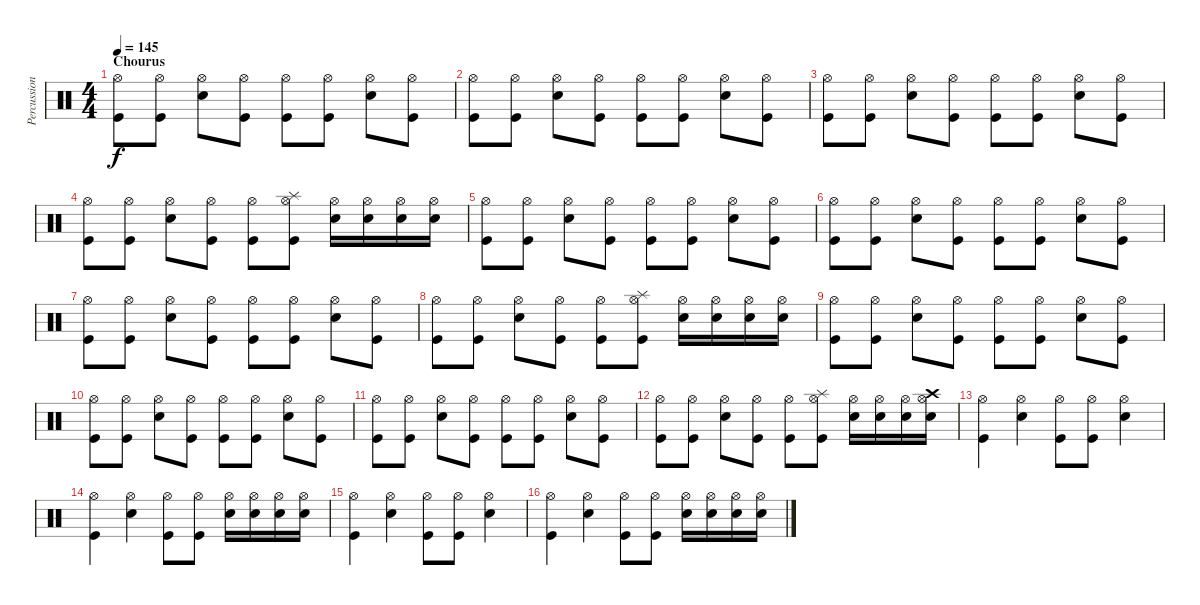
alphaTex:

\track ("Percussion" "Percussion") {instrument percussion}
\staff {score}
\articulation defaults
\ts (4 4)
\section ("" "Chourus")
\tempo 145
\clef neutral
\ks c
("Hi-Hat (open)" "Kick (hit)").8{dy f} ("Hi-Hat (open)" "Kick (hit)").8 ("Hi-Hat (open)" "Snare (hit) 2").8 ("Hi-Hat (open)" "Kick (hit)").8 ("Hi-Hat (open)" "Kick (hit)").8 ("Hi-Hat (open)" "Kick (hit)").8 ("Hi-Hat (open)" "Snare (hit) 2").8 ("Hi-Hat (open)" "Kick (hit)").8 |
("Hi-Hat (open)" "Kick (hit)").8 ("Hi-Hat (open)" "Kick (hit)").8 ("Hi-Hat (open)" "Snare (hit) 2").8 ("Hi-Hat (open)" "Kick (hit)").8 ("Hi-Hat (open)" "Kick (hit)").8 ("Hi-Hat (open)" "Kick (hit)").8 ("Hi-Hat (open)" "Snare (hit) 2").8 ("Hi-Hat (open)" "Kick (hit)").8 |
("Hi-Hat (open)" "Kick (hit)").8 ("Hi-Hat (open)" "Kick (hit)").8 ("Hi-Hat (open)" "Snare (hit) 2").8 ("Hi-Hat (open)" "Kick (hit)").8 ("Hi-Hat (open)" "Kick (hit)").8 ("Hi-Hat (open)" "Kick (hit)").8 ("Hi-Hat (open)" "Snare (hit) 2").8 ("Hi-Hat (open)" "Kick (hit)").8 |
("Hi-Hat (open)" "Kick (hit)").8 ("Hi-Hat (open)" "Kick (hit)").8 ("Hi-Hat (open)" "Snare (hit) 2").8 ("Hi-Hat (open)" "Kick (hit)").8 ("Hi-Hat (open)" "Kick (hit)").8 ("Hi-Hat (open)" "Splash (hit)" "Kick (hit)").8 ("Hi-Hat (open)" "Snare (hit) 2").16 ("Hi-Hat (open)" "Snare (hit) 2").16 ("Hi-Hat (open)" "Snare (hit) 2").16 ("Hi-Hat (open)" "Snare (hit) 2").16 |
("Hi-Hat (open)" "Kick (hit)").8 ("Hi-Hat (open)" "Kick (hit)").8 ("Hi-Hat (open)" "Snare (hit) 2").8 ("Hi-Hat (open)" "Kick (hit)").8 ("Hi-Hat (open)" "Kick (hit)").8 ("Hi-Hat (open)" "Kick (hit)").8 ("Hi-Hat (open)" "Snare (hit) 2").8 ("Hi-Hat (open)" "Kick (hit)").8 |
("Hi-Hat (open)" "Kick (hit)").8 ("Hi-Hat (open)" "Kick (hit)").8 ("Hi-Hat (open)" "Snare (hit) 2").8 ("Hi-Hat (open)" "Kick (hit)").8 ("Hi-Hat (open)" "Kick (hit)").8 ("Hi-Hat (open)" "Kick (hit)").8 ("Hi-Hat (open)" "Snare (hit) 2").8 ("Hi-Hat (open)" "Kick (hit)").8 |
("Hi-Hat (open)" "Kick (hit)").8 ("Hi-Hat (open)" "Kick (hit)").8 ("Hi-Hat (open)" "Snare (hit) 2").8 ("Hi-Hat (open)" "Kick (hit)").8 ("Hi-Hat (open)" "Kick (hit)").8 ("Hi-Hat (open)" "Kick (hit)").8 ("Hi-Hat (open)" "Snare (hit) 2").8 ("Hi-Hat (open)" "Kick (hit)").8 |
("Hi-Hat (open)" "Kick (hit)").8 ("Hi-Hat (open)" "Kick (hit)").8 ("Hi-Hat (open)" "Snare (hit) 2").8 ("Hi-Hat (open)" "Kick (hit)").8 ("Hi-Hat (open)" "Kick (hit)").8 ("Hi-Hat (open)" "Splash (hit)" "Kick (hit)").8 ("Hi-Hat (open)" "Snare (hit) 2").16 ("Hi-Hat (open)" "Snare (hit) 2").16 ("Hi-Hat (open)" "Snare (hit) 2").16 ("Hi-Hat (open)" "Snare (hit) 2").16 |
("Hi-Hat (open)" "Kick (hit)").8 ("Hi-Hat (open)" "Kick (hit)").8 ("Hi-Hat (open)" "Snare (hit) 2").8 ("Hi-Hat (open)" "Kick (hit)").8 ("Hi-Hat (open)" "Kick (hit)").8 ("Hi-Hat (open)" "Kick (hit)").8 ("Hi-Hat (open)" "Snare (hit) 2").8 ("Hi-Hat (open)" "Kick (hit)").8 |
("Hi-Hat (open)" "Kick (hit)").8 ("Hi-Hat (open)" "Kick (hit)").8 ("Hi-Hat (open)" "Snare (hit) 2").8 ("Hi-Hat (open)" "Kick (hit)").8 ("Hi-Hat (open)" "Kick (hit)").8 ("Hi-Hat (open)" "Kick (hit)").8 ("Hi-Hat (open)" "Snare (hit) 2").8 ("Hi-Hat (open)" "Kick (hit)").8 |
("Hi-Hat (open)" "Kick (hit)").8 ("Hi-Hat (open)" "Kick (hit)").8 ("Hi-Hat (open)" "Snare (hit) 2").8 ("Hi-Hat (open)" "Kick (hit)").8 ("Hi-Hat (open)" "Kick (hit)").8 ("Hi-Hat (open)" "Kick (hit)").8 ("Hi-Hat (open)" "Snare (hit) 2").8 ("Hi-Hat (open)" "Kick (hit)").8 |
("Hi-Hat (open)" "Kick (hit)").8 ("Hi-Hat (open)" "Kick (hit)").8 ("Hi-Hat (open)" "Snare (hit) 2").8 ("Hi-Hat (open)" "Kick (hit)").8 ("Hi-Hat (open)" "Kick (hit)").8 ("Hi-Hat (open)" "Splash (hit)" "Kick (hit)").8 ("Hi-Hat (open)" "Snare (hit) 2").16 ("Hi-Hat (open)" "Snare (hit) 2").16 ("Hi-Hat (open)" "Snare (hit) 2").16 ("Hi-Hat (open)" "Snare (hit) 2" "Crash high (hit)").16 |
("Hi-Hat (open)" "Kick (hit)").4 ("Hi-Hat (open)" "Snare (hit) 2").4 ("Hi-Hat (open)" "Kick (hit)").8 ("Hi-Hat (open)" "Kick (hit)").8 ("Hi-Hat (open)" "Snare (hit) 2").4 |
("Hi-Hat (open)" "Kick (hit)").4 ("Hi-Hat (open)" "Snare (hit) 2").4 ("Hi-Hat (open)" "Kick (hit)").8 ("Hi-Hat (open)" "Kick (hit)").8 ("Hi-Hat (open)" "Snare (hit) 2").16 ("Hi-Hat (open)" "Snare (hit) 2").16 ("Hi-Hat (open)" "Snare (hit) 2").16 ("Hi-Hat (open)" "Snare (hit) 2").16 |
("Hi-Hat (open)" "Kick (hit)").4 ("Hi-Hat (open)" "Snare (hit) 2").4 ("Hi-Hat (open)" "Kick (hit)").8 ("Hi-Hat (open)" "Kick (hit)").8 ("Hi-Hat (open)" "Snare (hit) 2").4 |
("Hi-Hat (open)" "Kick (hit)").4 ("Hi-Hat (open)" "Snare (hit) 2").4 ("Hi-Hat (open)" "Kick (hit)").8 ("Hi-Hat (open)" "Kick (hit)").8 ("Hi-Hat (open)" "Snare (hit) 2").16 ("Hi-Hat (open)" "Snare (hit) 2").16 ("Hi-Hat (open)" "Snare (hit) 2").16 ("Hi-Hat (open)" "Snare (hit) 2").16
